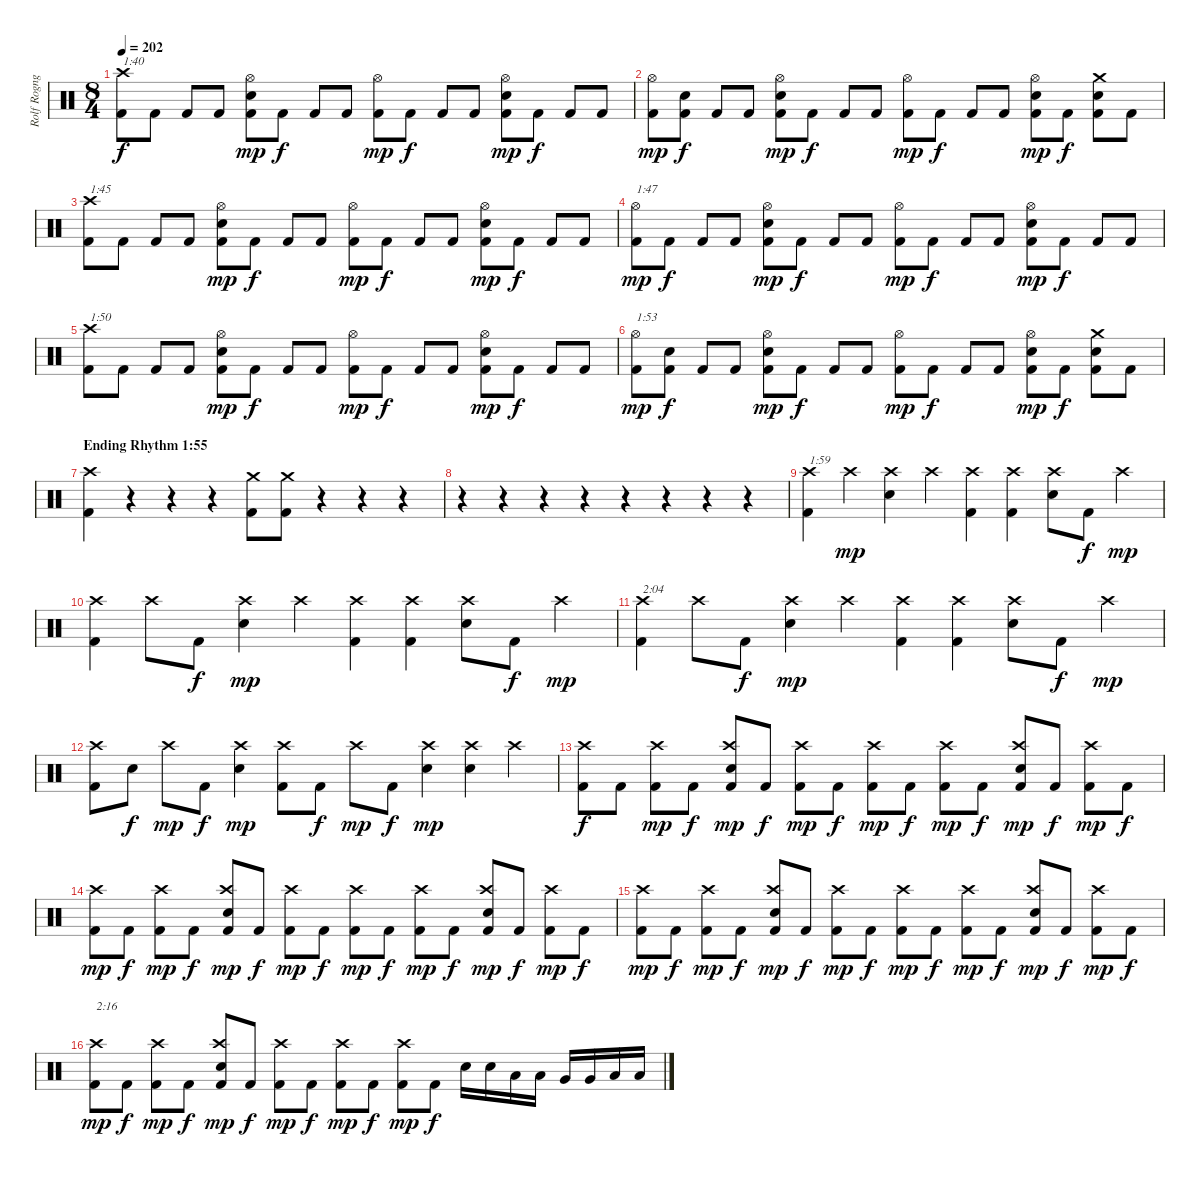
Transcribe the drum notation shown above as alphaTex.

\track ("Rolf Rognguf Hansen" "Rolf Rogng") {instrument percussion}
\staff {score}
\articulation defaults
\ts (8 4)
\tempo 202
\clef neutral
\ks c
("Kick (hit) 2" "Crash high (hit)").8{txt "1:40" dy f} "Kick (hit) 2".8 "Kick (hit) 2".8 "Kick (hit) 2".8 ("Kick (hit) 2" "Electric Snare (hit)" "Hi-Hat (open)").8{dy mp} "Kick (hit) 2".8{dy f} "Kick (hit) 2".8 "Kick (hit) 2".8 ("Kick (hit) 2" "Hi-Hat (open)").8{dy mp} "Kick (hit) 2".8{dy f} "Kick (hit) 2".8 "Kick (hit) 2".8 ("Kick (hit) 2" "Electric Snare (hit)" "Hi-Hat (open)").8{dy mp} "Kick (hit) 2".8{dy f} "Kick (hit) 2".8 "Kick (hit) 2".8 |
("Kick (hit) 2" "Hi-Hat (open)").8{dy mp} ("Kick (hit) 2" "Electric Snare (hit)").8{dy f} "Kick (hit) 2".8 "Kick (hit) 2".8 ("Kick (hit) 2" "Electric Snare (hit)" "Hi-Hat (open)").8{dy mp} "Kick (hit) 2".8{dy f} "Kick (hit) 2".8 "Kick (hit) 2".8 ("Kick (hit) 2" "Hi-Hat (open)").8{dy mp} "Kick (hit) 2".8{dy f} "Kick (hit) 2".8 "Kick (hit) 2".8 ("Kick (hit) 2" "Electric Snare (hit)" "Hi-Hat (open)").8{dy mp} "Kick (hit) 2".8{dy f} ("Kick (hit) 2" "Electric Snare (hit)" "Crash medium (hit)").8 "Kick (hit) 2".8 |
("Kick (hit) 2" "Crash high (hit)").8{txt "1:45"} "Kick (hit) 2".8 "Kick (hit) 2".8 "Kick (hit) 2".8 ("Kick (hit) 2" "Electric Snare (hit)" "Hi-Hat (open)").8{dy mp} "Kick (hit) 2".8{dy f} "Kick (hit) 2".8 "Kick (hit) 2".8 ("Kick (hit) 2" "Hi-Hat (open)").8{dy mp} "Kick (hit) 2".8{dy f} "Kick (hit) 2".8 "Kick (hit) 2".8 ("Kick (hit) 2" "Electric Snare (hit)" "Hi-Hat (open)").8{dy mp} "Kick (hit) 2".8{dy f} "Kick (hit) 2".8 "Kick (hit) 2".8 |
("Kick (hit) 2" "Hi-Hat (open)").8{txt "1:47" dy mp} "Kick (hit) 2".8{dy f} "Kick (hit) 2".8 "Kick (hit) 2".8 ("Kick (hit) 2" "Electric Snare (hit)" "Hi-Hat (open)").8{dy mp} "Kick (hit) 2".8{dy f} "Kick (hit) 2".8 "Kick (hit) 2".8 ("Kick (hit) 2" "Hi-Hat (open)").8{dy mp} "Kick (hit) 2".8{dy f} "Kick (hit) 2".8 "Kick (hit) 2".8 ("Kick (hit) 2" "Electric Snare (hit)" "Hi-Hat (open)").8{dy mp} "Kick (hit) 2".8{dy f} "Kick (hit) 2".8 "Kick (hit) 2".8 |
("Kick (hit) 2" "Crash high (hit)").8{txt "1:50"} "Kick (hit) 2".8 "Kick (hit) 2".8 "Kick (hit) 2".8 ("Kick (hit) 2" "Electric Snare (hit)" "Hi-Hat (open)").8{dy mp} "Kick (hit) 2".8{dy f} "Kick (hit) 2".8 "Kick (hit) 2".8 ("Kick (hit) 2" "Hi-Hat (open)").8{dy mp} "Kick (hit) 2".8{dy f} "Kick (hit) 2".8 "Kick (hit) 2".8 ("Kick (hit) 2" "Electric Snare (hit)" "Hi-Hat (open)").8{dy mp} "Kick (hit) 2".8{dy f} "Kick (hit) 2".8 "Kick (hit) 2".8 |
("Kick (hit) 2" "Hi-Hat (open)").8{txt "1:53" dy mp} ("Kick (hit) 2" "Electric Snare (hit)").8{dy f} "Kick (hit) 2".8 "Kick (hit) 2".8 ("Kick (hit) 2" "Electric Snare (hit)" "Hi-Hat (open)").8{dy mp} "Kick (hit) 2".8{dy f} "Kick (hit) 2".8 "Kick (hit) 2".8 ("Kick (hit) 2" "Hi-Hat (open)").8{dy mp} "Kick (hit) 2".8{dy f} "Kick (hit) 2".8 "Kick (hit) 2".8 ("Kick (hit) 2" "Electric Snare (hit)" "Hi-Hat (open)").8{dy mp} "Kick (hit) 2".8{dy f} ("Kick (hit) 2" "Electric Snare (hit)" "Crash medium (hit)").8 "Kick (hit) 2".8 |
\section ("" "Ending Rhythm 1:55")
("Kick (hit) 2" "Crash high (hit)").4 r.4 r.4 r.4 ("Kick (hit) 2" "Crash medium (hit)").8 ("Kick (hit) 2" "Crash medium (hit)").8 r.4{volume 0} r.4 r.4 |
r.4 r.4 r.4 r.4 r.4 r.4 r.4 r.4{volume 13} |
("Kick (hit) 2" "Crash high (hit)").4{txt "1:59"} "Crash high (hit)".4{dy mp} ("Electric Snare (hit)" "Crash high (hit)").4 "Crash high (hit)".4 ("Kick (hit) 2" "Crash high (hit)").4 ("Kick (hit) 2" "Crash high (hit)").4 ("Electric Snare (hit)" "Crash high (hit)").8 "Kick (hit) 2".8{dy f} "Crash high (hit)".4{dy mp} |
("Kick (hit) 2" "Crash high (hit)").4 "Crash high (hit)".8 "Kick (hit) 2".8{dy f} ("Electric Snare (hit)" "Crash high (hit)").4{dy mp} "Crash high (hit)".4 ("Kick (hit) 2" "Crash high (hit)").4 ("Kick (hit) 2" "Crash high (hit)").4 ("Electric Snare (hit)" "Crash high (hit)").8 "Kick (hit) 2".8{dy f} "Crash high (hit)".4{dy mp} |
("Kick (hit) 2" "Crash high (hit)").4{txt "2:04"} "Crash high (hit)".8 "Kick (hit) 2".8{dy f} ("Electric Snare (hit)" "Crash high (hit)").4{dy mp} "Crash high (hit)".4 ("Kick (hit) 2" "Crash high (hit)").4 ("Kick (hit) 2" "Crash high (hit)").4 ("Electric Snare (hit)" "Crash high (hit)").8 "Kick (hit) 2".8{dy f} "Crash high (hit)".4{dy mp} |
("Kick (hit) 2" "Crash high (hit)").8 "Electric Snare (hit)".8{dy f} "Crash high (hit)".8{dy mp} "Kick (hit) 2".8{dy f} ("Electric Snare (hit)" "Crash high (hit)").4{dy mp} ("Kick (hit) 2" "Crash high (hit)").8 "Kick (hit) 2".8{dy f} "Crash high (hit)".8{dy mp} "Kick (hit) 2".8{dy f} ("Electric Snare (hit)" "Crash high (hit)").4{dy mp} ("Electric Snare (hit)" "Crash high (hit)").4 "Crash high (hit)".4 |
("Kick (hit) 2" "Crash high (hit)").8{dy f} "Kick (hit) 2".8 ("Kick (hit) 2" "Crash high (hit)").8{dy mp} "Kick (hit) 2".8{dy f} ("Kick (hit) 2" "Electric Snare (hit)" "Crash high (hit)").8{dy mp} "Kick (hit) 2".8{dy f} ("Kick (hit) 2" "Crash high (hit)").8{dy mp} "Kick (hit) 2".8{dy f} ("Kick (hit) 2" "Crash high (hit)").8{dy mp} "Kick (hit) 2".8{dy f} ("Kick (hit) 2" "Crash high (hit)").8{dy mp} "Kick (hit) 2".8{dy f} ("Kick (hit) 2" "Electric Snare (hit)" "Crash high (hit)").8{dy mp} "Kick (hit) 2".8{dy f} ("Kick (hit) 2" "Crash high (hit)").8{dy mp} "Kick (hit) 2".8{dy f} |
("Kick (hit) 2" "Crash high (hit)").8{dy mp} "Kick (hit) 2".8{dy f} ("Kick (hit) 2" "Crash high (hit)").8{dy mp} "Kick (hit) 2".8{dy f} ("Kick (hit) 2" "Electric Snare (hit)" "Crash high (hit)").8{dy mp} "Kick (hit) 2".8{dy f} ("Kick (hit) 2" "Crash high (hit)").8{dy mp} "Kick (hit) 2".8{dy f} ("Kick (hit) 2" "Crash high (hit)").8{dy mp} "Kick (hit) 2".8{dy f} ("Kick (hit) 2" "Crash high (hit)").8{dy mp} "Kick (hit) 2".8{dy f} ("Kick (hit) 2" "Electric Snare (hit)" "Crash high (hit)").8{dy mp} "Kick (hit) 2".8{dy f} ("Kick (hit) 2" "Crash high (hit)").8{dy mp} "Kick (hit) 2".8{dy f} |
("Kick (hit) 2" "Crash high (hit)").8{dy mp} "Kick (hit) 2".8{dy f} ("Kick (hit) 2" "Crash high (hit)").8{dy mp} "Kick (hit) 2".8{dy f} ("Kick (hit) 2" "Electric Snare (hit)" "Crash high (hit)").8{dy mp} "Kick (hit) 2".8{dy f} ("Kick (hit) 2" "Crash high (hit)").8{dy mp} "Kick (hit) 2".8{dy f} ("Kick (hit) 2" "Crash high (hit)").8{dy mp} "Kick (hit) 2".8{dy f} ("Kick (hit) 2" "Crash high (hit)").8{dy mp} "Kick (hit) 2".8{dy f} ("Kick (hit) 2" "Electric Snare (hit)" "Crash high (hit)").8{dy mp} "Kick (hit) 2".8{dy f} ("Kick (hit) 2" "Crash high (hit)").8{dy mp} "Kick (hit) 2".8{dy f} |
("Kick (hit) 2" "Crash high (hit)").8{txt "2:16" dy mp} "Kick (hit) 2".8{dy f} ("Kick (hit) 2" "Crash high (hit)").8{dy mp} "Kick (hit) 2".8{dy f} ("Kick (hit) 2" "Electric Snare (hit)" "Crash high (hit)").8{dy mp} "Kick (hit) 2".8{dy f} ("Kick (hit) 2" "Crash high (hit)").8{dy mp} "Kick (hit) 2".8{dy f} ("Kick (hit) 2" "Crash high (hit)").8{dy mp} "Kick (hit) 2".8{dy f} ("Kick (hit) 2" "Crash high (hit)").8{dy mp} "Kick (hit) 2".8{dy f} "Electric Snare (hit)".16 "Electric Snare (hit)".16 "Low Tom (hit)".16 "Low Tom (hit)".16 "Very Low Tom (hit)".16 "Very Low Tom (hit)".16 "Low Tom (hit)".16 "Low Tom (hit)".16
